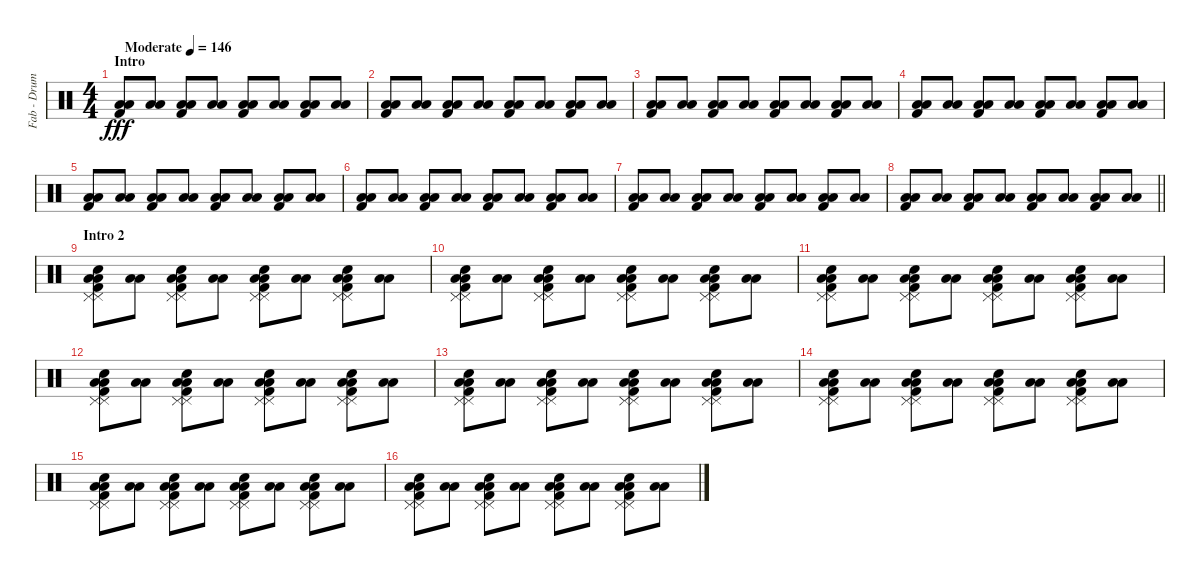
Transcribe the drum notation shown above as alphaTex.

\track ("Fab - Drums MIDI" "Fab - Drum") {instrument percussion}
\staff {score}
\articulation defaults
\ts (4 4)
\section ("" "Intro")
\tempo (146 "Moderate")
\clef neutral
\ks c
("Low Floor Tom (hit)" "Low Floor Tom (hit)" "Kick (hit) 2").8{dy fff} ("Low Floor Tom (hit)" "Low Floor Tom (hit)").8 ("Low Floor Tom (hit)" "Low Floor Tom (hit)" "Kick (hit) 2").8 ("Low Floor Tom (hit)" "Low Floor Tom (hit)").8 ("Low Floor Tom (hit)" "Low Floor Tom (hit)" "Kick (hit) 2").8 ("Low Floor Tom (hit)" "Low Floor Tom (hit)").8 ("Low Floor Tom (hit)" "Low Floor Tom (hit)" "Kick (hit) 2").8 ("Low Floor Tom (hit)" "Low Floor Tom (hit)").8 |
("Low Floor Tom (hit)" "Low Floor Tom (hit)" "Kick (hit) 2").8 ("Low Floor Tom (hit)" "Low Floor Tom (hit)").8 ("Low Floor Tom (hit)" "Low Floor Tom (hit)" "Kick (hit) 2").8 ("Low Floor Tom (hit)" "Low Floor Tom (hit)").8 ("Low Floor Tom (hit)" "Low Floor Tom (hit)" "Kick (hit) 2").8 ("Low Floor Tom (hit)" "Low Floor Tom (hit)").8 ("Low Floor Tom (hit)" "Low Floor Tom (hit)" "Kick (hit) 2").8 ("Low Floor Tom (hit)" "Low Floor Tom (hit)").8 |
("Low Floor Tom (hit)" "Low Floor Tom (hit)" "Kick (hit) 2").8 ("Low Floor Tom (hit)" "Low Floor Tom (hit)").8 ("Low Floor Tom (hit)" "Low Floor Tom (hit)" "Kick (hit) 2").8 ("Low Floor Tom (hit)" "Low Floor Tom (hit)").8 ("Low Floor Tom (hit)" "Low Floor Tom (hit)" "Kick (hit) 2").8 ("Low Floor Tom (hit)" "Low Floor Tom (hit)").8 ("Low Floor Tom (hit)" "Low Floor Tom (hit)" "Kick (hit) 2").8 ("Low Floor Tom (hit)" "Low Floor Tom (hit)").8 |
("Low Floor Tom (hit)" "Low Floor Tom (hit)" "Kick (hit) 2").8 ("Low Floor Tom (hit)" "Low Floor Tom (hit)").8 ("Low Floor Tom (hit)" "Low Floor Tom (hit)" "Kick (hit) 2").8 ("Low Floor Tom (hit)" "Low Floor Tom (hit)").8 ("Low Floor Tom (hit)" "Low Floor Tom (hit)" "Kick (hit) 2").8 ("Low Floor Tom (hit)" "Low Floor Tom (hit)").8 ("Low Floor Tom (hit)" "Low Floor Tom (hit)" "Kick (hit) 2").8 ("Low Floor Tom (hit)" "Low Floor Tom (hit)").8 |
("Low Floor Tom (hit)" "Low Floor Tom (hit)" "Kick (hit) 2").8 ("Low Floor Tom (hit)" "Low Floor Tom (hit)").8 ("Low Floor Tom (hit)" "Low Floor Tom (hit)" "Kick (hit) 2").8 ("Low Floor Tom (hit)" "Low Floor Tom (hit)").8 ("Low Floor Tom (hit)" "Low Floor Tom (hit)" "Kick (hit) 2").8 ("Low Floor Tom (hit)" "Low Floor Tom (hit)").8 ("Low Floor Tom (hit)" "Low Floor Tom (hit)" "Kick (hit) 2").8 ("Low Floor Tom (hit)" "Low Floor Tom (hit)").8 |
("Low Floor Tom (hit)" "Low Floor Tom (hit)" "Kick (hit) 2").8 ("Low Floor Tom (hit)" "Low Floor Tom (hit)").8 ("Low Floor Tom (hit)" "Low Floor Tom (hit)" "Kick (hit) 2").8 ("Low Floor Tom (hit)" "Low Floor Tom (hit)").8 ("Low Floor Tom (hit)" "Low Floor Tom (hit)" "Kick (hit) 2").8 ("Low Floor Tom (hit)" "Low Floor Tom (hit)").8 ("Low Floor Tom (hit)" "Low Floor Tom (hit)" "Kick (hit) 2").8 ("Low Floor Tom (hit)" "Low Floor Tom (hit)").8 |
("Low Floor Tom (hit)" "Low Floor Tom (hit)" "Kick (hit) 2").8 ("Low Floor Tom (hit)" "Low Floor Tom (hit)").8 ("Low Floor Tom (hit)" "Low Floor Tom (hit)" "Kick (hit) 2").8 ("Low Floor Tom (hit)" "Low Floor Tom (hit)").8 ("Low Floor Tom (hit)" "Low Floor Tom (hit)" "Kick (hit) 2").8 ("Low Floor Tom (hit)" "Low Floor Tom (hit)").8 ("Low Floor Tom (hit)" "Low Floor Tom (hit)" "Kick (hit) 2").8 ("Low Floor Tom (hit)" "Low Floor Tom (hit)").8 |
\barLineRight lightlight
("Low Floor Tom (hit)" "Low Floor Tom (hit)" "Kick (hit) 2").8 ("Low Floor Tom (hit)" "Low Floor Tom (hit)").8 ("Low Floor Tom (hit)" "Low Floor Tom (hit)" "Kick (hit) 2").8 ("Low Floor Tom (hit)" "Low Floor Tom (hit)").8 ("Low Floor Tom (hit)" "Low Floor Tom (hit)" "Kick (hit) 2").8 ("Low Floor Tom (hit)" "Low Floor Tom (hit)").8 ("Low Floor Tom (hit)" "Low Floor Tom (hit)" "Kick (hit) 2").8 ("Low Floor Tom (hit)" "Low Floor Tom (hit)").8 |
\section ("" "Intro 2")
("Low Floor Tom (hit)" "Pedal Hi-Hat (hit)" "Snare (hit) 2" "Kick (hit) 2" "Pedal Hi-Hat (hit)" "Low Floor Tom (hit)").8 ("Low Floor Tom (hit)" "Low Floor Tom (hit)").8 ("Low Floor Tom (hit)" "Pedal Hi-Hat (hit)" "Snare (hit) 2" "Kick (hit) 2" "Pedal Hi-Hat (hit)" "Low Floor Tom (hit)").8 ("Low Floor Tom (hit)" "Low Floor Tom (hit)").8 ("Low Floor Tom (hit)" "Pedal Hi-Hat (hit)" "Snare (hit) 2" "Kick (hit) 2" "Pedal Hi-Hat (hit)" "Low Floor Tom (hit)").8 ("Low Floor Tom (hit)" "Low Floor Tom (hit)").8 ("Low Floor Tom (hit)" "Pedal Hi-Hat (hit)" "Snare (hit) 2" "Kick (hit) 2" "Pedal Hi-Hat (hit)" "Low Floor Tom (hit)").8 ("Low Floor Tom (hit)" "Low Floor Tom (hit)").8 |
("Low Floor Tom (hit)" "Pedal Hi-Hat (hit)" "Snare (hit) 2" "Kick (hit) 2" "Pedal Hi-Hat (hit)" "Low Floor Tom (hit)").8 ("Low Floor Tom (hit)" "Low Floor Tom (hit)").8 ("Low Floor Tom (hit)" "Pedal Hi-Hat (hit)" "Snare (hit) 2" "Kick (hit) 2" "Pedal Hi-Hat (hit)" "Low Floor Tom (hit)").8 ("Low Floor Tom (hit)" "Low Floor Tom (hit)").8 ("Low Floor Tom (hit)" "Pedal Hi-Hat (hit)" "Snare (hit) 2" "Kick (hit) 2" "Pedal Hi-Hat (hit)" "Low Floor Tom (hit)").8 ("Low Floor Tom (hit)" "Low Floor Tom (hit)").8 ("Low Floor Tom (hit)" "Pedal Hi-Hat (hit)" "Snare (hit) 2" "Kick (hit) 2" "Pedal Hi-Hat (hit)" "Low Floor Tom (hit)").8 ("Low Floor Tom (hit)" "Low Floor Tom (hit)").8 |
("Low Floor Tom (hit)" "Pedal Hi-Hat (hit)" "Snare (hit) 2" "Kick (hit) 2" "Pedal Hi-Hat (hit)" "Low Floor Tom (hit)").8 ("Low Floor Tom (hit)" "Low Floor Tom (hit)").8 ("Low Floor Tom (hit)" "Pedal Hi-Hat (hit)" "Snare (hit) 2" "Kick (hit) 2" "Pedal Hi-Hat (hit)" "Low Floor Tom (hit)").8 ("Low Floor Tom (hit)" "Low Floor Tom (hit)").8 ("Low Floor Tom (hit)" "Pedal Hi-Hat (hit)" "Snare (hit) 2" "Kick (hit) 2" "Pedal Hi-Hat (hit)" "Low Floor Tom (hit)").8 ("Low Floor Tom (hit)" "Low Floor Tom (hit)").8 ("Low Floor Tom (hit)" "Pedal Hi-Hat (hit)" "Snare (hit) 2" "Kick (hit) 2" "Pedal Hi-Hat (hit)" "Low Floor Tom (hit)").8 ("Low Floor Tom (hit)" "Low Floor Tom (hit)").8 |
("Low Floor Tom (hit)" "Pedal Hi-Hat (hit)" "Snare (hit) 2" "Kick (hit) 2" "Pedal Hi-Hat (hit)" "Low Floor Tom (hit)").8 ("Low Floor Tom (hit)" "Low Floor Tom (hit)").8 ("Low Floor Tom (hit)" "Pedal Hi-Hat (hit)" "Snare (hit) 2" "Kick (hit) 2" "Pedal Hi-Hat (hit)" "Low Floor Tom (hit)").8 ("Low Floor Tom (hit)" "Low Floor Tom (hit)").8 ("Low Floor Tom (hit)" "Pedal Hi-Hat (hit)" "Snare (hit) 2" "Kick (hit) 2" "Pedal Hi-Hat (hit)" "Low Floor Tom (hit)").8 ("Low Floor Tom (hit)" "Low Floor Tom (hit)").8 ("Low Floor Tom (hit)" "Pedal Hi-Hat (hit)" "Snare (hit) 2" "Kick (hit) 2" "Pedal Hi-Hat (hit)" "Low Floor Tom (hit)").8 ("Low Floor Tom (hit)" "Low Floor Tom (hit)").8 |
("Low Floor Tom (hit)" "Pedal Hi-Hat (hit)" "Snare (hit) 2" "Kick (hit) 2" "Pedal Hi-Hat (hit)" "Low Floor Tom (hit)").8 ("Low Floor Tom (hit)" "Low Floor Tom (hit)").8 ("Low Floor Tom (hit)" "Pedal Hi-Hat (hit)" "Snare (hit) 2" "Kick (hit) 2" "Pedal Hi-Hat (hit)" "Low Floor Tom (hit)").8 ("Low Floor Tom (hit)" "Low Floor Tom (hit)").8 ("Low Floor Tom (hit)" "Pedal Hi-Hat (hit)" "Snare (hit) 2" "Kick (hit) 2" "Pedal Hi-Hat (hit)" "Low Floor Tom (hit)").8 ("Low Floor Tom (hit)" "Low Floor Tom (hit)").8 ("Low Floor Tom (hit)" "Pedal Hi-Hat (hit)" "Snare (hit) 2" "Kick (hit) 2" "Pedal Hi-Hat (hit)" "Low Floor Tom (hit)").8 ("Low Floor Tom (hit)" "Low Floor Tom (hit)").8 |
("Low Floor Tom (hit)" "Pedal Hi-Hat (hit)" "Snare (hit) 2" "Kick (hit) 2" "Pedal Hi-Hat (hit)" "Low Floor Tom (hit)").8 ("Low Floor Tom (hit)" "Low Floor Tom (hit)").8 ("Low Floor Tom (hit)" "Pedal Hi-Hat (hit)" "Snare (hit) 2" "Kick (hit) 2" "Pedal Hi-Hat (hit)" "Low Floor Tom (hit)").8 ("Low Floor Tom (hit)" "Low Floor Tom (hit)").8 ("Low Floor Tom (hit)" "Pedal Hi-Hat (hit)" "Snare (hit) 2" "Kick (hit) 2" "Pedal Hi-Hat (hit)" "Low Floor Tom (hit)").8 ("Low Floor Tom (hit)" "Low Floor Tom (hit)").8 ("Low Floor Tom (hit)" "Pedal Hi-Hat (hit)" "Snare (hit) 2" "Kick (hit) 2" "Pedal Hi-Hat (hit)" "Low Floor Tom (hit)").8 ("Low Floor Tom (hit)" "Low Floor Tom (hit)").8 |
("Low Floor Tom (hit)" "Pedal Hi-Hat (hit)" "Snare (hit) 2" "Kick (hit) 2" "Pedal Hi-Hat (hit)" "Low Floor Tom (hit)").8 ("Low Floor Tom (hit)" "Low Floor Tom (hit)").8 ("Low Floor Tom (hit)" "Pedal Hi-Hat (hit)" "Snare (hit) 2" "Kick (hit) 2" "Pedal Hi-Hat (hit)" "Low Floor Tom (hit)").8 ("Low Floor Tom (hit)" "Low Floor Tom (hit)").8 ("Low Floor Tom (hit)" "Pedal Hi-Hat (hit)" "Snare (hit) 2" "Kick (hit) 2" "Pedal Hi-Hat (hit)" "Low Floor Tom (hit)").8 ("Low Floor Tom (hit)" "Low Floor Tom (hit)").8 ("Low Floor Tom (hit)" "Pedal Hi-Hat (hit)" "Snare (hit) 2" "Kick (hit) 2" "Pedal Hi-Hat (hit)" "Low Floor Tom (hit)").8 ("Low Floor Tom (hit)" "Low Floor Tom (hit)").8 |
("Low Floor Tom (hit)" "Pedal Hi-Hat (hit)" "Snare (hit) 2" "Kick (hit) 2" "Pedal Hi-Hat (hit)" "Low Floor Tom (hit)").8 ("Low Floor Tom (hit)" "Low Floor Tom (hit)").8 ("Low Floor Tom (hit)" "Pedal Hi-Hat (hit)" "Snare (hit) 2" "Kick (hit) 2" "Pedal Hi-Hat (hit)" "Low Floor Tom (hit)").8 ("Low Floor Tom (hit)" "Low Floor Tom (hit)").8 ("Low Floor Tom (hit)" "Pedal Hi-Hat (hit)" "Snare (hit) 2" "Kick (hit) 2" "Pedal Hi-Hat (hit)" "Low Floor Tom (hit)").8 ("Low Floor Tom (hit)" "Low Floor Tom (hit)").8 ("Low Floor Tom (hit)" "Pedal Hi-Hat (hit)" "Snare (hit) 2" "Kick (hit) 2" "Pedal Hi-Hat (hit)" "Low Floor Tom (hit)").8 ("Low Floor Tom (hit)" "Low Floor Tom (hit)").8
